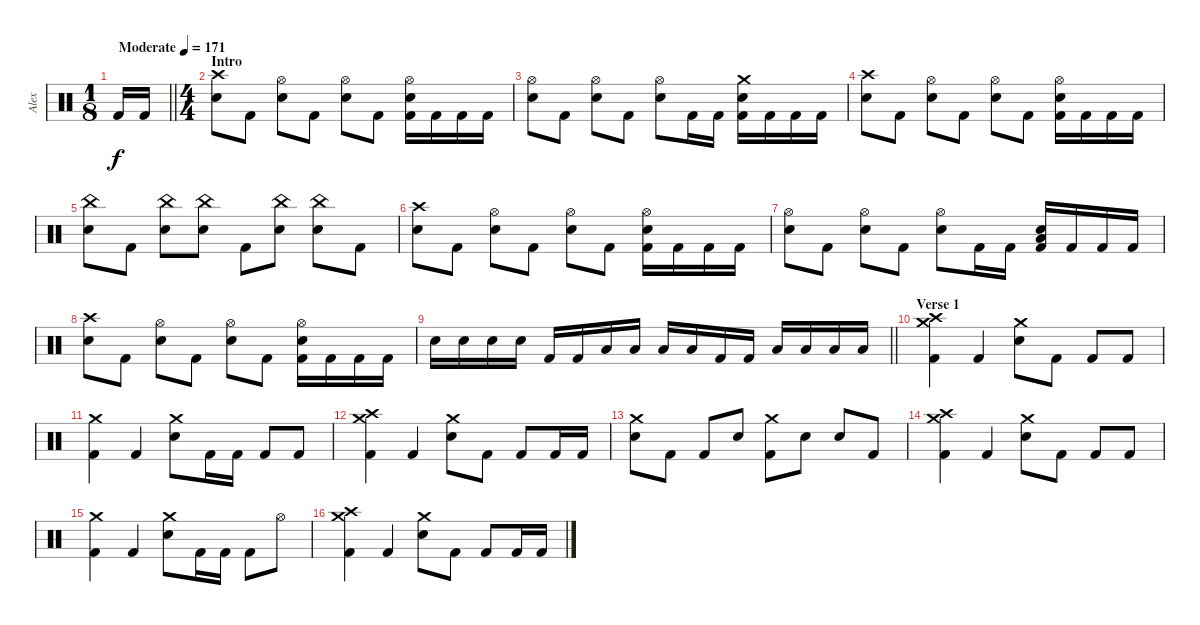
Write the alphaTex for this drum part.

\track ("Alex" "Alex") {instrument percussion}
\staff
\articulation defaults
\ts (1 8)
\tempo (171 "Moderate")
\clef neutral
\barLineRight lightlight
\ks c "Kick (hit) 2".16{dy f} "Kick (hit) 2".16
|
\ts (4 4)
\section ("" "Intro")
("Crash high (hit)" "Electric Snare (hit)").8 "Kick (hit) 2".8 ("Hi-Hat (open)" "Electric Snare (hit)").8 "Kick (hit) 2".8 ("Hi-Hat (open)" "Electric Snare (hit)").8 "Kick (hit) 2".8 ("Hi-Hat (open)" "Electric Snare (hit)" "Kick (hit) 2").16 "Kick (hit) 2".16 "Kick (hit) 2".16 "Kick (hit) 2".16 |
("Hi-Hat (open)" "Electric Snare (hit)").8 "Kick (hit) 2".8 ("Hi-Hat (open)" "Electric Snare (hit)").8 "Kick (hit) 2".8 ("Hi-Hat (open)" "Electric Snare (hit)").8 "Kick (hit) 2".16 "Kick (hit) 2".16 ("Crash medium (hit)" "Electric Snare (hit)" "Kick (hit) 2").16 "Kick (hit) 2".16 "Kick (hit) 2".16 "Kick (hit) 2".16 |
("Crash high (hit)" "Electric Snare (hit)").8 "Kick (hit) 2".8 ("Hi-Hat (open)" "Electric Snare (hit)").8 "Kick (hit) 2".8 ("Hi-Hat (open)" "Electric Snare (hit)").8 "Kick (hit) 2".8 ("Hi-Hat (open)" "Electric Snare (hit)" "Kick (hit) 2").16 "Kick (hit) 2".16 "Kick (hit) 2".16 "Kick (hit) 2".16 |
("China (hit)" "Electric Snare (hit)").8 "Kick (hit) 2".8 ("China (hit)" "Electric Snare (hit)").8 ("China (hit)" "Electric Snare (hit)").8 "Kick (hit) 2".8 ("China (hit)" "Electric Snare (hit)").8 ("China (hit)" "Electric Snare (hit)").8 "Kick (hit) 2".8 |
("Crash high (hit)" "Electric Snare (hit)").8 "Kick (hit) 2".8 ("Hi-Hat (open)" "Electric Snare (hit)").8 "Kick (hit) 2".8 ("Hi-Hat (open)" "Electric Snare (hit)").8 "Kick (hit) 2".8 ("Hi-Hat (open)" "Electric Snare (hit)" "Kick (hit) 2").16 "Kick (hit) 2".16 "Kick (hit) 2".16 "Kick (hit) 2".16 |
("Hi-Hat (open)" "Electric Snare (hit)").8 "Kick (hit) 2".8 ("Hi-Hat (open)" "Electric Snare (hit)").8 "Kick (hit) 2".8 ("Hi-Hat (open)" "Electric Snare (hit)").8 "Kick (hit) 2".16 "Kick (hit) 2".16 ("Electric Snare (hit)" "Low Floor Tom (hit)" "Kick (hit) 2").16 "Kick (hit) 2".16 "Kick (hit) 2".16 "Kick (hit) 2".16 |
("Crash high (hit)" "Electric Snare (hit)").8 "Kick (hit) 2".8 ("Hi-Hat (open)" "Electric Snare (hit)").8 "Kick (hit) 2".8 ("Hi-Hat (open)" "Electric Snare (hit)").8 "Kick (hit) 2".8 ("Hi-Hat (open)" "Electric Snare (hit)" "Kick (hit) 2").16 "Kick (hit) 2".16 "Kick (hit) 2".16 "Kick (hit) 2".16 |
\barLineRight lightlight "Electric Snare (hit)".16 "Electric Snare (hit)".16 "Electric Snare (hit)".16 "Electric Snare (hit)".16 "Kick (hit) 2".16 "Kick (hit) 2".16 "Low Tom (hit)".16 "Low Tom (hit)".16 "Low Tom (hit)".16 "Low Tom (hit)".16 "Kick (hit) 2".16 "Kick (hit) 2".16 "Low Floor Tom (hit)".16 "Low Floor Tom (hit)".16 "Low Floor Tom (hit)".16 "Low Floor Tom (hit)".16
|
\section ("" "Verse 1")
("Crash medium (hit)" "Crash high (hit)" "Kick (hit) 2").4 "Kick (hit) 2".4 ("Crash medium (hit)" "Electric Snare (hit)").8 "Kick (hit) 2".8 "Kick (hit) 2".8 "Kick (hit) 2".8 |
("Crash medium (hit)" "Kick (hit) 2").4 "Kick (hit) 2".4 ("Crash medium (hit)" "Electric Snare (hit)").8 "Kick (hit) 2".16 "Kick (hit) 2".16 "Kick (hit) 2".8 "Kick (hit) 2".8 |
("Crash medium (hit)" "Crash high (hit)" "Kick (hit) 2").4 "Kick (hit) 2".4 ("Crash medium (hit)" "Electric Snare (hit)").8 "Kick (hit) 2".8 "Kick (hit) 2".8 "Kick (hit) 2".16 "Kick (hit) 2".16 |
("Crash medium (hit)" "Electric Snare (hit)").8 "Kick (hit) 2".8 "Kick (hit) 2".8 "Electric Snare (hit)".8 ("Crash medium (hit)" "Kick (hit) 2").8 "Electric Snare (hit)".8 "Electric Snare (hit)".8 "Kick (hit) 2".8 |
("Crash medium (hit)" "Crash high (hit)" "Kick (hit) 2").4 "Kick (hit) 2".4 ("Crash medium (hit)" "Electric Snare (hit)").8 "Kick (hit) 2".8 "Kick (hit) 2".8 "Kick (hit) 2".8 |
("Crash medium (hit)" "Kick (hit) 2").4 "Kick (hit) 2".4 ("Crash medium (hit)" "Electric Snare (hit)").8 "Kick (hit) 2".16 "Kick (hit) 2".16 "Kick (hit) 2".8 "Hi-Hat (open)".8 |
("Crash medium (hit)" "Crash high (hit)" "Kick (hit) 2").4 "Kick (hit) 2".4 ("Crash medium (hit)" "Electric Snare (hit)").8 "Kick (hit) 2".8 "Kick (hit) 2".8 "Kick (hit) 2".16 "Kick (hit) 2".16
